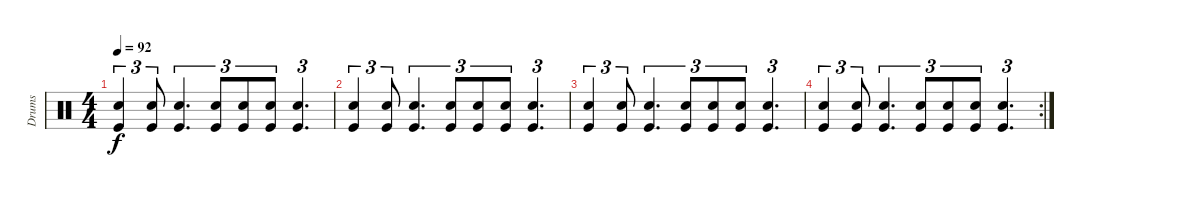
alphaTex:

\track ("Drums" "Drums") {instrument percussion}
\staff {score}
\articulation defaults
\ts (4 4)
\tempo 92
\clef neutral
\ks c
("Hand Clap (hit)" "Kick (hit)").4{tu (3 2) dy f} ("Hand Clap (hit)" "Kick (hit)").8{tu (3 2)} ("Hand Clap (hit)" "Kick (hit)").4{d tu (3 2)} ("Hand Clap (hit)" "Kick (hit)").8{tu (3 2)} ("Hand Clap (hit)" "Kick (hit)").8{tu (3 2)} ("Hand Clap (hit)" "Kick (hit)").8{tu (3 2)} ("Hand Clap (hit)" "Kick (hit)").4{d tu (3 2)} |
("Hand Clap (hit)" "Kick (hit)").4{tu (3 2)} ("Hand Clap (hit)" "Kick (hit)").8{tu (3 2)} ("Hand Clap (hit)" "Kick (hit)").4{d tu (3 2)} ("Hand Clap (hit)" "Kick (hit)").8{tu (3 2)} ("Hand Clap (hit)" "Kick (hit)").8{tu (3 2)} ("Hand Clap (hit)" "Kick (hit)").8{tu (3 2)} ("Hand Clap (hit)" "Kick (hit)").4{d tu (3 2)} |
("Hand Clap (hit)" "Kick (hit)").4{tu (3 2)} ("Hand Clap (hit)" "Kick (hit)").8{tu (3 2)} ("Hand Clap (hit)" "Kick (hit)").4{d tu (3 2)} ("Hand Clap (hit)" "Kick (hit)").8{tu (3 2)} ("Hand Clap (hit)" "Kick (hit)").8{tu (3 2)} ("Hand Clap (hit)" "Kick (hit)").8{tu (3 2)} ("Hand Clap (hit)" "Kick (hit)").4{d tu (3 2)} |
\rc 2
("Hand Clap (hit)" "Kick (hit)").4{tu (3 2)} ("Hand Clap (hit)" "Kick (hit)").8{tu (3 2)} ("Hand Clap (hit)" "Kick (hit)").4{d tu (3 2)} ("Hand Clap (hit)" "Kick (hit)").8{tu (3 2)} ("Hand Clap (hit)" "Kick (hit)").8{tu (3 2)} ("Hand Clap (hit)" "Kick (hit)").8{tu (3 2)} ("Hand Clap (hit)" "Kick (hit)").4{d tu (3 2)}
